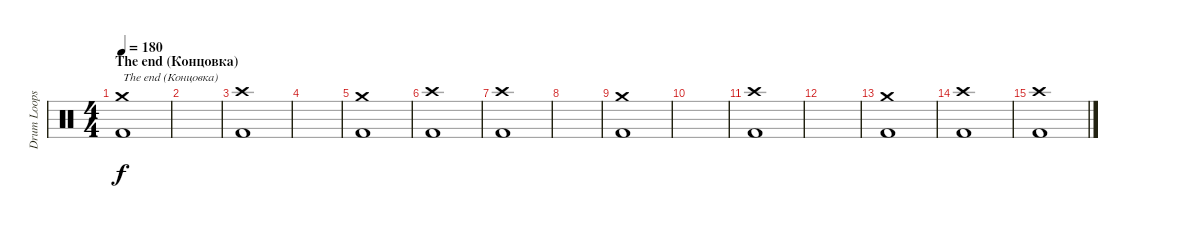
\track ("Drum Loops (Дурачок)" "Drum Loops") {instrument percussion}
\staff {score}
\articulation defaults
\ts (4 4)
\section ("" "The end (Концовка)")
\tempo 180
\clef neutral
\ks c
("Kick (hit) 2" "Crash medium (hit)").1{txt "The end (Концовка)" dy f} |
|
("Kick (hit) 2" "Crash high (hit)").1 |
|
("Kick (hit) 2" "Crash medium (hit)").1{volume 11} |
("Kick (hit) 2" "Crash high (hit)").1 |
("Kick (hit) 2" "Crash high (hit)").1 |
|
("Kick (hit) 2" "Crash medium (hit)").1{volume 9} |
|
("Kick (hit) 2" "Crash high (hit)").1 |
|
("Kick (hit) 2" "Crash medium (hit)").1{volume 7} |
("Kick (hit) 2" "Crash high (hit)").1 |
("Kick (hit) 2" "Crash high (hit)").1
